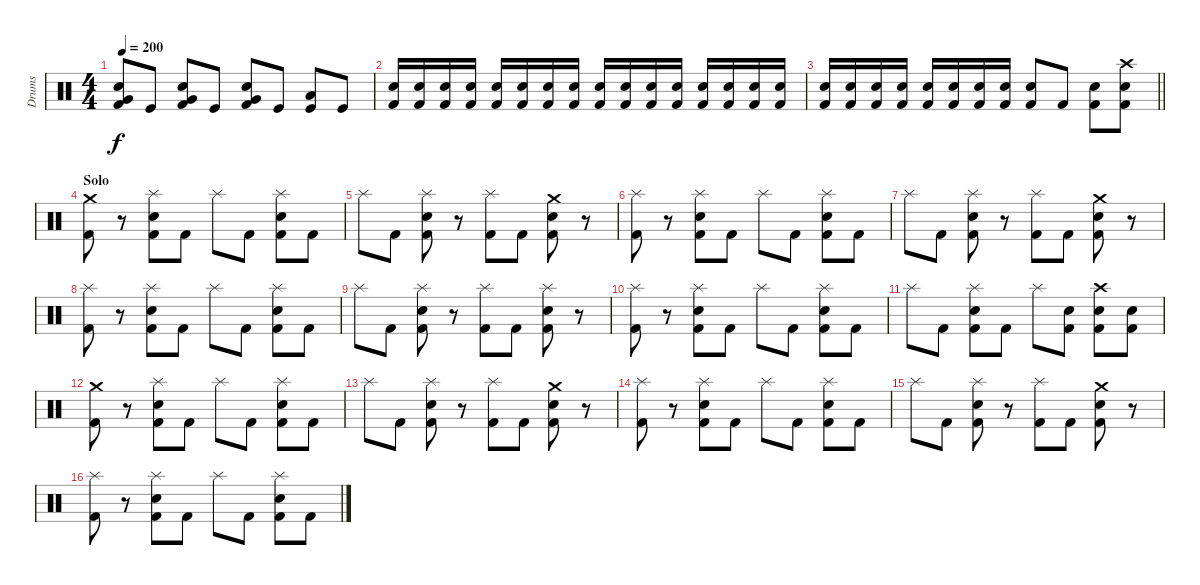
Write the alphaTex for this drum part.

\track ("Drums" "Drums") {instrument percussion}
\staff {score}
\articulation defaults
\ts (4 4)
\tempo 200
\clef neutral
\ks c
("Snare (hit) 2" "Very Low Tom (hit)" "Kick (hit) 2").8{dy f} "Kick (hit)".8 ("Snare (hit) 2" "Very Low Tom (hit)" "Kick (hit) 2").8 "Kick (hit)".8 ("Snare (hit) 2" "Very Low Tom (hit)" "Kick (hit) 2").8 "Kick (hit)".8 ("Low Floor Tom (hit)" "Kick (hit)").8 "Kick (hit)".8 |
("Snare (hit) 2" "Kick (hit) 2").16 ("Snare (hit) 2" "Kick (hit) 2").16 ("Snare (hit) 2" "Kick (hit) 2").16 ("Snare (hit) 2" "Kick (hit) 2").16 ("Snare (hit) 2" "Kick (hit) 2").16 ("Snare (hit) 2" "Kick (hit) 2").16 ("Snare (hit) 2" "Kick (hit) 2").16 ("Snare (hit) 2" "Kick (hit) 2").16 ("Snare (hit) 2" "Kick (hit) 2").16 ("Snare (hit) 2" "Kick (hit) 2").16 ("Snare (hit) 2" "Kick (hit) 2").16 ("Snare (hit) 2" "Kick (hit) 2").16 ("Snare (hit) 2" "Kick (hit) 2").16 ("Snare (hit) 2" "Kick (hit) 2").16 ("Snare (hit) 2" "Kick (hit) 2").16 ("Snare (hit) 2" "Kick (hit) 2").16 |
\barLineRight lightlight
("Snare (hit) 2" "Kick (hit) 2").16 ("Snare (hit) 2" "Kick (hit) 2").16 ("Snare (hit) 2" "Kick (hit) 2").16 ("Snare (hit) 2" "Kick (hit) 2").16 ("Snare (hit) 2" "Kick (hit) 2").16 ("Snare (hit) 2" "Kick (hit) 2").16 ("Snare (hit) 2" "Kick (hit) 2").16 ("Snare (hit) 2" "Kick (hit) 2").16 ("Snare (hit) 2" "Kick (hit) 2").8 "Kick (hit) 2".8 ("Snare (hit) 2" "Kick (hit) 2").8 ("Crash high (hit)" "Snare (hit) 2" "Kick (hit) 2").8 |
\section ("" "Solo")
("Crash medium (hit)" "Kick (hit) 2").8 r.8 ("Splash (hit)" "Snare (hit) 2" "Kick (hit) 2").8 "Kick (hit) 2".8 "Splash (hit)".8 "Kick (hit) 2".8 ("Splash (hit)" "Snare (hit) 2" "Kick (hit) 2").8 "Kick (hit) 2".8 |
"Splash (hit)".8 "Kick (hit) 2".8 ("Splash (hit)" "Snare (hit) 2" "Kick (hit) 2").8 r.8 ("Splash (hit)" "Kick (hit) 2").8 "Kick (hit) 2".8 ("Crash medium (hit)" "Snare (hit) 2" "Kick (hit) 2").8 r.8 |
("Splash (hit)" "Kick (hit) 2").8 r.8 ("Splash (hit)" "Snare (hit) 2" "Kick (hit) 2").8 "Kick (hit) 2".8 "Splash (hit)".8 "Kick (hit) 2".8 ("Splash (hit)" "Snare (hit) 2" "Kick (hit) 2").8 "Kick (hit) 2".8 |
"Splash (hit)".8 "Kick (hit) 2".8 ("Splash (hit)" "Snare (hit) 2" "Kick (hit) 2").8 r.8 ("Splash (hit)" "Kick (hit) 2").8 "Kick (hit) 2".8 ("Crash medium (hit)" "Snare (hit) 2" "Kick (hit) 2").8 r.8 |
("Splash (hit)" "Kick (hit) 2").8 r.8 ("Splash (hit)" "Snare (hit) 2" "Kick (hit) 2").8 "Kick (hit) 2".8 "Splash (hit)".8 "Kick (hit) 2".8 ("Splash (hit)" "Snare (hit) 2" "Kick (hit) 2").8 "Kick (hit) 2".8 |
"Splash (hit)".8 "Kick (hit) 2".8 ("Splash (hit)" "Snare (hit) 2" "Kick (hit) 2").8 r.8 ("Splash (hit)" "Kick (hit) 2").8 "Kick (hit) 2".8 ("Splash (hit)" "Snare (hit) 2" "Kick (hit) 2").8 r.8 |
("Splash (hit)" "Kick (hit) 2").8 r.8 ("Splash (hit)" "Snare (hit) 2" "Kick (hit) 2").8 "Kick (hit) 2".8 "Splash (hit)".8 "Kick (hit) 2".8 ("Splash (hit)" "Snare (hit) 2" "Kick (hit) 2").8 "Kick (hit) 2".8 |
"Splash (hit)".8 "Kick (hit) 2".8 ("Splash (hit)" "Snare (hit) 2" "Kick (hit) 2").8 "Kick (hit) 2".8 "Splash (hit)".8 ("Snare (hit) 2" "Kick (hit) 2").8 ("Crash high (hit)" "Snare (hit) 2" "Kick (hit) 2").8 ("Snare (hit) 2" "Kick (hit) 2").8 |
("Crash medium (hit)" "Kick (hit) 2").8 r.8 ("Splash (hit)" "Snare (hit) 2" "Kick (hit) 2").8 "Kick (hit) 2".8 "Splash (hit)".8 "Kick (hit) 2".8 ("Splash (hit)" "Snare (hit) 2" "Kick (hit) 2").8 "Kick (hit) 2".8 |
"Splash (hit)".8 "Kick (hit) 2".8 ("Splash (hit)" "Snare (hit) 2" "Kick (hit) 2").8 r.8 ("Splash (hit)" "Kick (hit) 2").8 "Kick (hit) 2".8 ("Crash medium (hit)" "Snare (hit) 2" "Kick (hit) 2").8 r.8 |
("Splash (hit)" "Kick (hit) 2").8 r.8 ("Splash (hit)" "Snare (hit) 2" "Kick (hit) 2").8 "Kick (hit) 2".8 "Splash (hit)".8 "Kick (hit) 2".8 ("Splash (hit)" "Snare (hit) 2" "Kick (hit) 2").8 "Kick (hit) 2".8 |
"Splash (hit)".8 "Kick (hit) 2".8 ("Splash (hit)" "Snare (hit) 2" "Kick (hit) 2").8 r.8 ("Splash (hit)" "Kick (hit) 2").8 "Kick (hit) 2".8 ("Crash medium (hit)" "Snare (hit) 2" "Kick (hit) 2").8 r.8 |
("Splash (hit)" "Kick (hit) 2").8 r.8 ("Splash (hit)" "Snare (hit) 2" "Kick (hit) 2").8 "Kick (hit) 2".8 "Splash (hit)".8 "Kick (hit) 2".8 ("Splash (hit)" "Snare (hit) 2" "Kick (hit) 2").8 "Kick (hit) 2".8
